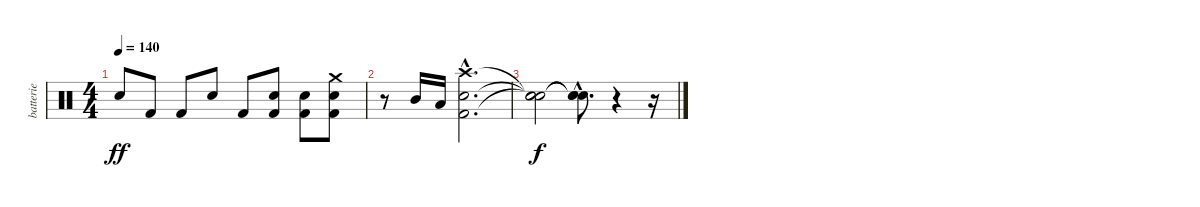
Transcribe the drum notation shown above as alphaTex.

\track ("batterie" "batterie") {instrument percussion}
\staff {score}
\articulation defaults
\ts (4 4)
\tempo 140
\clef neutral
\ks c "Electric Snare (hit)".8{dy ff} "Kick (hit) 2".8 "Kick (hit) 2".8 "Electric Snare (hit)".8 "Kick (hit) 2".8
("Kick (hit) 2" "Electric Snare (hit)").8 ("Kick (hit) 2" "Electric Snare (hit)").8 ("Kick (hit) 2" "Electric Snare (hit)" "Crash medium (hit)").8 |
r.8 "Mid Tom (hit)".16 "Low Tom (hit)".16 ("Kick (hit) 2"{hac} "Electric Snare (hit)"{hac} "Crash high (hit)"{hac}).2{d} |
("Snare (hit)"{t} "Snare (hit)"{t} "Snare (hit)"{t}).2{dy f} ("Snare (hit)"{hac t} "Snare (hit)"{hac t} "Snare (hit)"{hac t}).8{d} r.4 r.16
